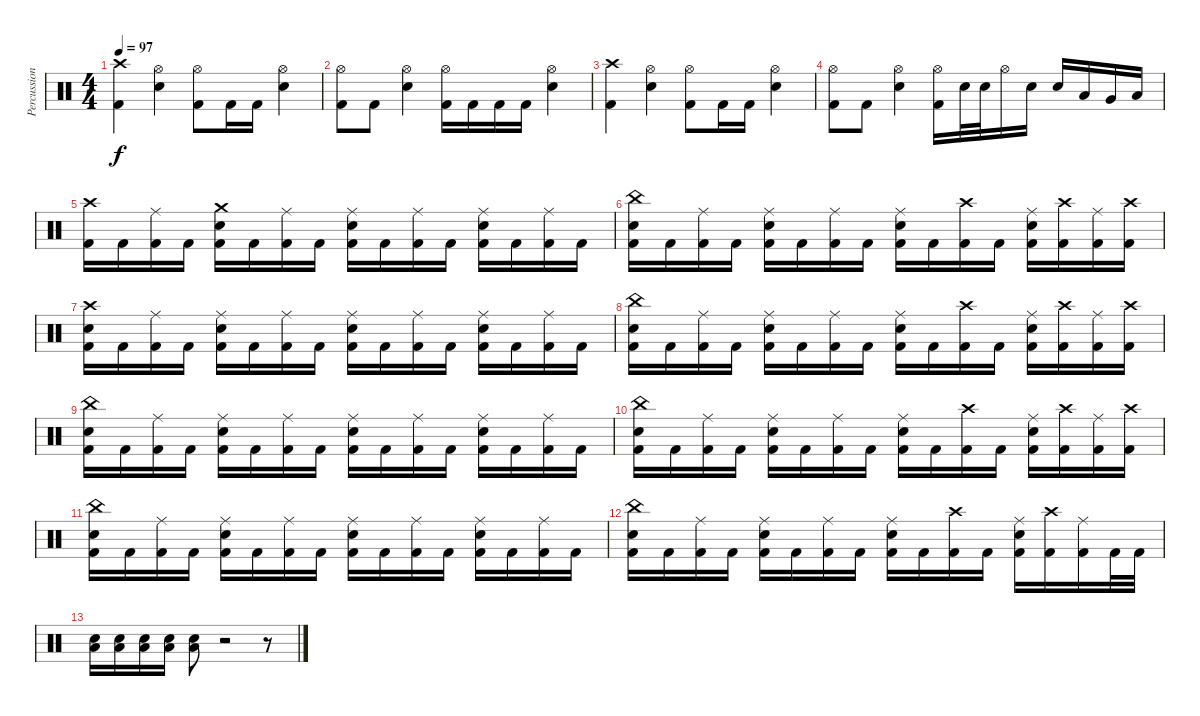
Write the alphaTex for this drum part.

\track ("Percussion" "Percussion") {instrument percussion}
\staff {score}
\articulation defaults
\ts (4 4)
\tempo 97
\clef neutral
\ks c
("Crash high (hit)" "Kick (hit) 2").4{dy f} ("Hi-Hat (open)" "Snare (hit) 2").4 ("Hi-Hat (open)" "Kick (hit) 2").8 "Kick (hit) 2".16 "Kick (hit) 2".16 ("Hi-Hat (open)" "Snare (hit) 2").4 |
("Hi-Hat (open)" "Kick (hit) 2").8 "Kick (hit) 2".8 ("Hi-Hat (open)" "Snare (hit) 2").4 ("Hi-Hat (open)" "Kick (hit) 2").16 "Kick (hit) 2".16 "Kick (hit) 2".16 "Kick (hit) 2".16 ("Hi-Hat (open)" "Snare (hit) 2").4 |
("Crash high (hit)" "Kick (hit) 2").4 ("Hi-Hat (open)" "Snare (hit) 2").4 ("Hi-Hat (open)" "Kick (hit) 2").8 "Kick (hit) 2".16 "Kick (hit) 2".16 ("Hi-Hat (open)" "Snare (hit) 2").4 |
("Hi-Hat (open)" "Kick (hit) 2").8 "Kick (hit) 2".8 ("Hi-Hat (open)" "Snare (hit) 2").4 ("Hi-Hat (open)" "Kick (hit) 2").16 "Snare (hit) 2".32 "Snare (hit) 2".32 "Hi-Hat (open)".16 "Snare (hit) 2".16 "Snare (hit) 2".16 "Low Tom (hit)".16 "Very Low Tom (hit)".16 "Low Floor Tom (hit)".16 |
("Crash high (hit)" "Kick (hit) 2").16 "Kick (hit) 2".16 ("Ride (middle)" "Kick (hit) 2").16 "Kick (hit) 2".16 ("Snare (hit) 2" "Crash medium (hit)" "Kick (hit) 2").16 "Kick (hit) 2".16 ("Ride (middle)" "Kick (hit) 2").16 "Kick (hit) 2".16 ("Snare (hit) 2" "Ride (middle)" "Kick (hit) 2").16 "Kick (hit) 2".16 ("Ride (middle)" "Kick (hit) 2").16 "Kick (hit) 2".16 ("Ride (middle)" "Snare (hit) 2" "Kick (hit) 2").16 "Kick (hit) 2".16 ("Ride (middle)" "Kick (hit) 2").16 "Kick (hit) 2".16 |
("Snare (hit) 2" "China (hit)" "Kick (hit) 2").16 "Kick (hit) 2".16 ("Ride (middle)" "Kick (hit) 2").16 "Kick (hit) 2".16 ("Snare (hit) 2" "Ride (middle)" "Kick (hit) 2").16 "Kick (hit) 2".16 ("Ride (middle)" "Kick (hit) 2").16 "Kick (hit) 2".16 ("Snare (hit) 2" "Ride (middle)" "Kick (hit) 2").16 "Kick (hit) 2".16 ("Crash high (hit)" "Kick (hit) 2").16 "Kick (hit) 2".16 ("Ride (middle)" "Snare (hit) 2" "Kick (hit) 2").16 ("Crash high (hit)" "Kick (hit) 2").16 ("Ride (middle)" "Kick (hit) 2").16 ("Crash high (hit)" "Kick (hit) 2").16 |
("Snare (hit) 2" "Crash high (hit)" "Kick (hit) 2").16 "Kick (hit) 2".16 ("Ride (middle)" "Kick (hit) 2").16 "Kick (hit) 2".16 ("Snare (hit) 2" "Ride (middle)" "Kick (hit) 2").16 "Kick (hit) 2".16 ("Ride (middle)" "Kick (hit) 2").16 "Kick (hit) 2".16 ("Snare (hit) 2" "Ride (middle)" "Kick (hit) 2").16 "Kick (hit) 2".16 ("Ride (middle)" "Kick (hit) 2").16 "Kick (hit) 2".16 ("Ride (middle)" "Snare (hit) 2" "Kick (hit) 2").16 "Kick (hit) 2".16 ("Ride (middle)" "Kick (hit) 2").16 "Kick (hit) 2".16 |
("Snare (hit) 2" "China (hit)" "Kick (hit) 2").16 "Kick (hit) 2".16 ("Ride (middle)" "Kick (hit) 2").16 "Kick (hit) 2".16 ("Snare (hit) 2" "Ride (middle)" "Kick (hit) 2").16 "Kick (hit) 2".16 ("Ride (middle)" "Kick (hit) 2").16 "Kick (hit) 2".16 ("Snare (hit) 2" "Ride (middle)" "Kick (hit) 2").16 "Kick (hit) 2".16 ("Crash high (hit)" "Kick (hit) 2").16 "Kick (hit) 2".16 ("Ride (middle)" "Snare (hit) 2" "Kick (hit) 2").16 ("Crash high (hit)" "Kick (hit) 2").16 ("Ride (middle)" "Kick (hit) 2").16 ("Crash high (hit)" "Kick (hit) 2").16 |
("Snare (hit) 2" "China (hit)" "Kick (hit) 2").16 "Kick (hit) 2".16 ("Ride (middle)" "Kick (hit) 2").16 "Kick (hit) 2".16 ("Snare (hit) 2" "Ride (middle)" "Kick (hit) 2").16 "Kick (hit) 2".16 ("Ride (middle)" "Kick (hit) 2").16 "Kick (hit) 2".16 ("Snare (hit) 2" "Ride (middle)" "Kick (hit) 2").16 "Kick (hit) 2".16 ("Ride (middle)" "Kick (hit) 2").16 "Kick (hit) 2".16 ("Ride (middle)" "Snare (hit) 2" "Kick (hit) 2").16 "Kick (hit) 2".16 ("Ride (middle)" "Kick (hit) 2").16 "Kick (hit) 2".16 |
("Snare (hit) 2" "China (hit)" "Kick (hit) 2").16 "Kick (hit) 2".16 ("Ride (middle)" "Kick (hit) 2").16 "Kick (hit) 2".16 ("Snare (hit) 2" "Ride (middle)" "Kick (hit) 2").16 "Kick (hit) 2".16 ("Ride (middle)" "Kick (hit) 2").16 "Kick (hit) 2".16 ("Snare (hit) 2" "Ride (middle)" "Kick (hit) 2").16 "Kick (hit) 2".16 ("Crash high (hit)" "Kick (hit) 2").16 "Kick (hit) 2".16 ("Ride (middle)" "Snare (hit) 2" "Kick (hit) 2").16 ("Crash high (hit)" "Kick (hit) 2").16 ("Ride (middle)" "Kick (hit) 2").16 ("Crash high (hit)" "Kick (hit) 2").16 |
("Snare (hit) 2" "China (hit)" "Kick (hit) 2").16 "Kick (hit) 2".16 ("Ride (middle)" "Kick (hit) 2").16 "Kick (hit) 2".16 ("Snare (hit) 2" "Ride (middle)" "Kick (hit) 2").16 "Kick (hit) 2".16 ("Ride (middle)" "Kick (hit) 2").16 "Kick (hit) 2".16 ("Snare (hit) 2" "Ride (middle)" "Kick (hit) 2").16 "Kick (hit) 2".16 ("Ride (middle)" "Kick (hit) 2").16 "Kick (hit) 2".16 ("Ride (middle)" "Snare (hit) 2" "Kick (hit) 2").16 "Kick (hit) 2".16 ("Ride (middle)" "Kick (hit) 2").16 "Kick (hit) 2".16 |
("Snare (hit) 2" "China (hit)" "Kick (hit) 2").16 "Kick (hit) 2".16 ("Ride (middle)" "Kick (hit) 2").16 "Kick (hit) 2".16 ("Snare (hit) 2" "Ride (middle)" "Kick (hit) 2").16 "Kick (hit) 2".16 ("Ride (middle)" "Kick (hit) 2").16 "Kick (hit) 2".16 ("Snare (hit) 2" "Ride (middle)" "Kick (hit) 2").16 "Kick (hit) 2".16 ("Crash high (hit)" "Kick (hit) 2").16 "Kick (hit) 2".16 ("Ride (middle)" "Snare (hit) 2" "Kick (hit) 2").16 ("Crash high (hit)" "Kick (hit) 2").16 ("Ride (middle)" "Kick (hit) 2").16 "Kick (hit) 2".32 "Kick (hit) 2".32 |
("Low Floor Tom (hit)" "Snare (hit) 2").16 ("Low Floor Tom (hit)" "Snare (hit) 2").16 ("Low Floor Tom (hit)" "Snare (hit) 2").16 ("Low Floor Tom (hit)" "Snare (hit) 2").16 ("Low Floor Tom (hit)" "Snare (hit) 2").8 r.2 r.8
